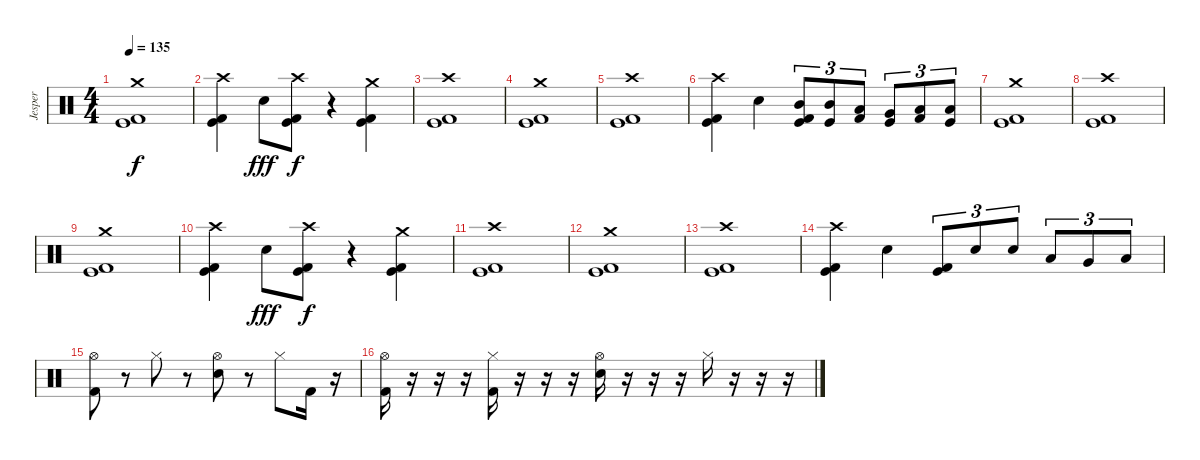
\track ("Jesper" "Jesper") {instrument percussion}
\staff {score}
\articulation defaults
\ts (4 4)
\tempo 135
\clef neutral
\ks c
("Kick (hit) 2" "Kick (hit)" "Crash medium (hit)").1{dy f} |
("Kick (hit) 2" "Kick (hit)" "Crash high (hit)").4 "Snare (hit) 2".8{dy fff} ("Kick (hit) 2" "Kick (hit)" "Crash high (hit)").8{dy f} r.4 ("Kick (hit) 2" "Kick (hit)" "Crash medium (hit)").4 |
("Kick (hit) 2" "Kick (hit)" "Crash high (hit)").1 |
("Kick (hit) 2" "Kick (hit)" "Crash medium (hit)").1 |
("Kick (hit) 2" "Kick (hit)" "Crash high (hit)").1 |
("Kick (hit) 2" "Kick (hit)" "Crash high (hit)").4 "Snare (hit) 2".4 ("Kick (hit) 2" "Kick (hit)" "Mid Tom (hit)").8{tu (3 2)} ("Kick (hit)" "Mid Tom (hit)").8{tu (3 2)} ("Kick (hit) 2" "Low Tom (hit)").8{tu (3 2)} ("Kick (hit)" "Very Low Tom (hit)").8{tu (3 2)} ("Kick (hit) 2" "Low Floor Tom (hit)").8{tu (3 2)} ("Kick (hit)" "Low Floor Tom (hit)").8{tu (3 2)} |
("Kick (hit) 2" "Kick (hit)" "Crash medium (hit)").1 |
("Kick (hit) 2" "Kick (hit)" "Crash high (hit)").1 |
("Kick (hit) 2" "Kick (hit)" "Crash medium (hit)").1 |
("Kick (hit) 2" "Kick (hit)" "Crash high (hit)").4 "Snare (hit) 2".8{dy fff} ("Kick (hit) 2" "Kick (hit)" "Crash high (hit)").8{dy f} r.4 ("Kick (hit) 2" "Kick (hit)" "Crash medium (hit)").4 |
("Kick (hit) 2" "Kick (hit)" "Crash high (hit)").1 |
("Kick (hit) 2" "Kick (hit)" "Crash medium (hit)").1 |
("Kick (hit) 2" "Kick (hit)" "Crash high (hit)").1 |
("Kick (hit) 2" "Kick (hit)" "Crash high (hit)").4 "Snare (hit) 2".4 ("Kick (hit) 2" "Kick (hit)").8{tu (3 2)} "Snare (hit) 2".8{tu (3 2)} "Snare (hit) 2".8{tu (3 2)} "Low Tom (hit)".8{tu (3 2)} "Very Low Tom (hit)".8{tu (3 2)} "Low Floor Tom (hit)".8{tu (3 2)} |
("Kick (hit) 2" "Hi-Hat (open)").8 r.8 "Hi-Hat (closed)".8 r.8 ("Snare (hit) 2" "Hi-Hat (open)").8 r.8 "Hi-Hat (closed)".8 "Kick (hit) 2".16 r.16 |
("Kick (hit) 2" "Hi-Hat (open)").16 r.16 r.16 r.16 ("Kick (hit) 2" "Hi-Hat (closed)").16 r.16 r.16 r.16 ("Snare (hit) 2" "Hi-Hat (open)").16 r.16 r.16 r.16 "Hi-Hat (closed)".16 r.16 r.16 r.16
